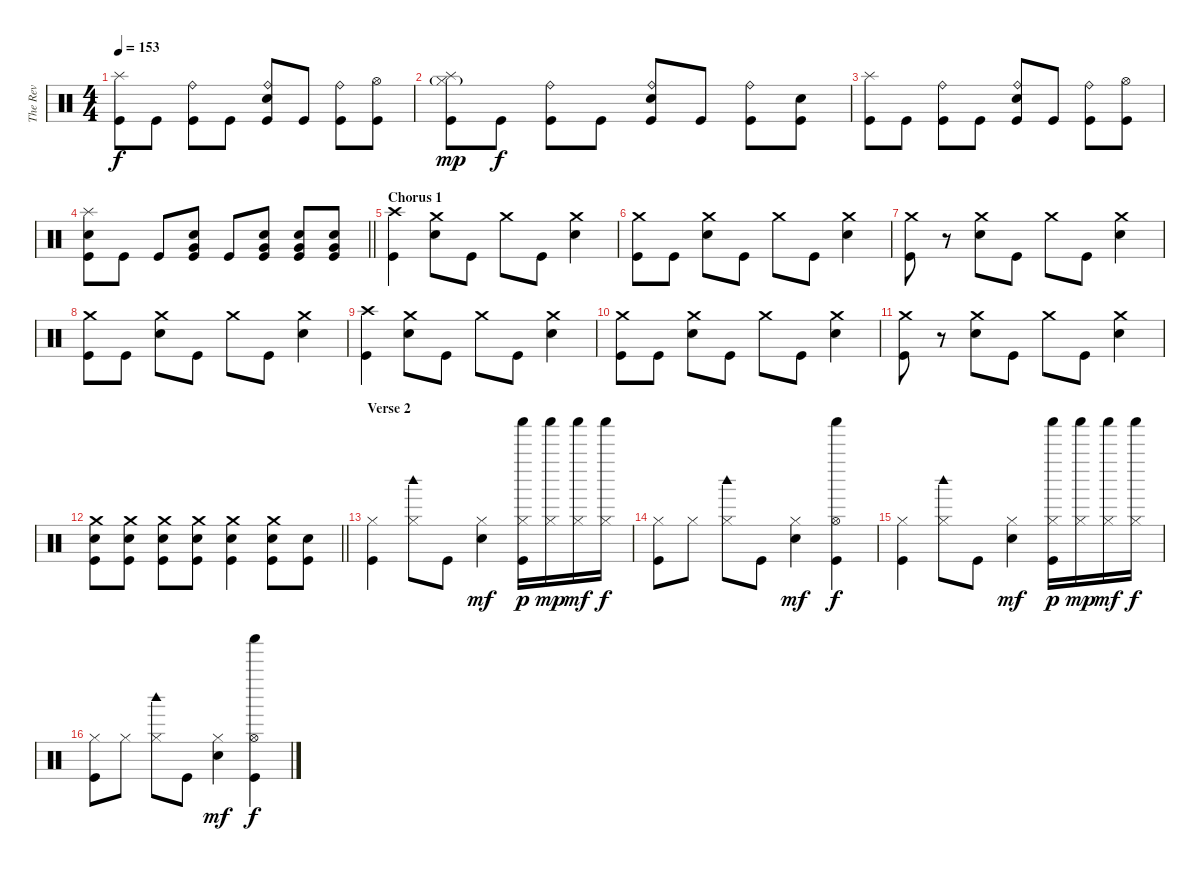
\track ("The Rev" "The Rev") {instrument percussion}
\staff {score}
\articulation defaults
\ts (4 4)
\tempo 153
\clef neutral
\ks c
("Splash (hit)" "Kick (hit)").8{dy f} "Kick (hit)".8 ("Ride (bell)" "Kick (hit)").8 "Kick (hit)".8 ("Ride (bell)" "Electric Snare (hit)" "Kick (hit)").8 "Kick (hit)".8 ("Ride (bell)" "Kick (hit)").8 ("Hi-Hat (open)" "Kick (hit)").8 |
("Splash (hit)" "Hi-Hat (closed)"{g} "Kick (hit)").8{dy mp} "Kick (hit)".8{dy f} ("Ride (bell)" "Kick (hit)").8 "Kick (hit)".8 ("Ride (bell)" "Electric Snare (hit)" "Kick (hit)").8 "Kick (hit)".8 ("Ride (bell)" "Kick (hit)").8 ("Electric Snare (hit)" "Kick (hit)").8 |
("Splash (hit)" "Kick (hit)").8 "Kick (hit)".8 ("Ride (bell)" "Kick (hit)").8 "Kick (hit)".8 ("Ride (bell)" "Electric Snare (hit)" "Kick (hit)").8 "Kick (hit)".8 ("Ride (bell)" "Kick (hit)").8 ("Hi-Hat (open)" "Kick (hit)").8 |
\barLineRight lightlight
("Splash (hit)" "Electric Snare (hit)" "Kick (hit)").8 "Kick (hit)".8 "Kick (hit)".8 ("Very Low Tom (hit)" "Electric Snare (hit)" "Kick (hit)").8 "Kick (hit)".8 ("Very Low Tom (hit)" "Electric Snare (hit)" "Kick (hit)").8 ("Very Low Tom (hit)" "Electric Snare (hit)" "Kick (hit)").8 ("Very Low Tom (hit)" "Electric Snare (hit)" "Kick (hit)").8 |
\section ("" "Chorus 1")
("Crash high (hit)" "Kick (hit)").4 ("Crash medium (hit)" "Electric Snare (hit)").8 "Kick (hit)".8 "Crash medium (hit)".8 "Kick (hit)".8 ("Crash medium (hit)" "Electric Snare (hit)").4 |
("Crash medium (hit)" "Kick (hit)").8 "Kick (hit)".8 ("Crash medium (hit)" "Electric Snare (hit)").8 "Kick (hit)".8 "Crash medium (hit)".8 "Kick (hit)".8 ("Crash medium (hit)" "Electric Snare (hit)").4 |
("Crash medium (hit)" "Kick (hit)").8 r.8 ("Crash medium (hit)" "Electric Snare (hit)").8 "Kick (hit)".8 "Crash medium (hit)".8 "Kick (hit)".8 ("Crash medium (hit)" "Electric Snare (hit)").4 |
("Crash medium (hit)" "Kick (hit)").8 "Kick (hit)".8 ("Crash medium (hit)" "Electric Snare (hit)").8 "Kick (hit)".8 "Crash medium (hit)".8 "Kick (hit)".8 ("Crash medium (hit)" "Electric Snare (hit)").4 |
("Crash high (hit)" "Kick (hit)").4 ("Crash medium (hit)" "Electric Snare (hit)").8 "Kick (hit)".8 "Crash medium (hit)".8 "Kick (hit)".8 ("Crash medium (hit)" "Electric Snare (hit)").4 |
("Crash medium (hit)" "Kick (hit)").8 "Kick (hit)".8 ("Crash medium (hit)" "Electric Snare (hit)").8 "Kick (hit)".8 "Crash medium (hit)".8 "Kick (hit)".8 ("Crash medium (hit)" "Electric Snare (hit)").4 |
("Crash medium (hit)" "Kick (hit)").8 r.8 ("Crash medium (hit)" "Electric Snare (hit)").8 "Kick (hit)".8 "Crash medium (hit)".8 "Kick (hit)".8 ("Crash medium (hit)" "Electric Snare (hit)").4 |
\barLineRight lightlight
("Crash medium (hit)" "Electric Snare (hit)" "Kick (hit)").8 ("Crash medium (hit)" "Electric Snare (hit)" "Kick (hit)").8 ("Crash medium (hit)" "Electric Snare (hit)" "Kick (hit)").8 ("Crash medium (hit)" "Electric Snare (hit)" "Kick (hit)").8 ("Crash medium (hit)" "Electric Snare (hit)" "Kick (hit)").4 ("Crash medium (hit)" "Electric Snare (hit)" "Kick (hit)").8 ("Electric Snare (hit)" "Kick (hit)").8 |
\section ("" "Verse 2")
("Hi-Hat (closed)" "Kick (hit)").4 ("Hi-Hat (closed)" "Woodblock high (hit)").8 "Kick (hit)".8 ("Hi-Hat (closed)" "Electric Snare (hit)").4{dy mf} ("Hi-Hat (closed)" "Shaker (hit)" "Kick (hit)").16{dy p} ("Hi-Hat (closed)" "Shaker (hit)").16{dy mp} ("Hi-Hat (closed)" "Shaker (hit)").16{dy mf} ("Hi-Hat (closed)" "Shaker (hit)").16{dy f} |
("Hi-Hat (closed)" "Kick (hit)").8 "Hi-Hat (closed)".8 ("Hi-Hat (closed)" "Woodblock high (hit)").8 "Kick (hit)".8 ("Hi-Hat (closed)" "Electric Snare (hit)").4{dy mf} ("Hi-Hat (open)" "Shaker (hit)" "Kick (hit)").4{dy f} |
("Hi-Hat (closed)" "Kick (hit)").4 ("Hi-Hat (closed)" "Woodblock high (hit)").8 "Kick (hit)".8 ("Hi-Hat (closed)" "Electric Snare (hit)").4{dy mf} ("Hi-Hat (closed)" "Shaker (hit)" "Kick (hit)").16{dy p} ("Hi-Hat (closed)" "Shaker (hit)").16{dy mp} ("Hi-Hat (closed)" "Shaker (hit)").16{dy mf} ("Hi-Hat (closed)" "Shaker (hit)").16{dy f} |
("Hi-Hat (closed)" "Kick (hit)").8 "Hi-Hat (closed)".8 ("Hi-Hat (closed)" "Woodblock high (hit)").8 "Kick (hit)".8 ("Hi-Hat (closed)" "Electric Snare (hit)").4{dy mf} ("Hi-Hat (open)" "Shaker (hit)" "Kick (hit)").4{dy f}
